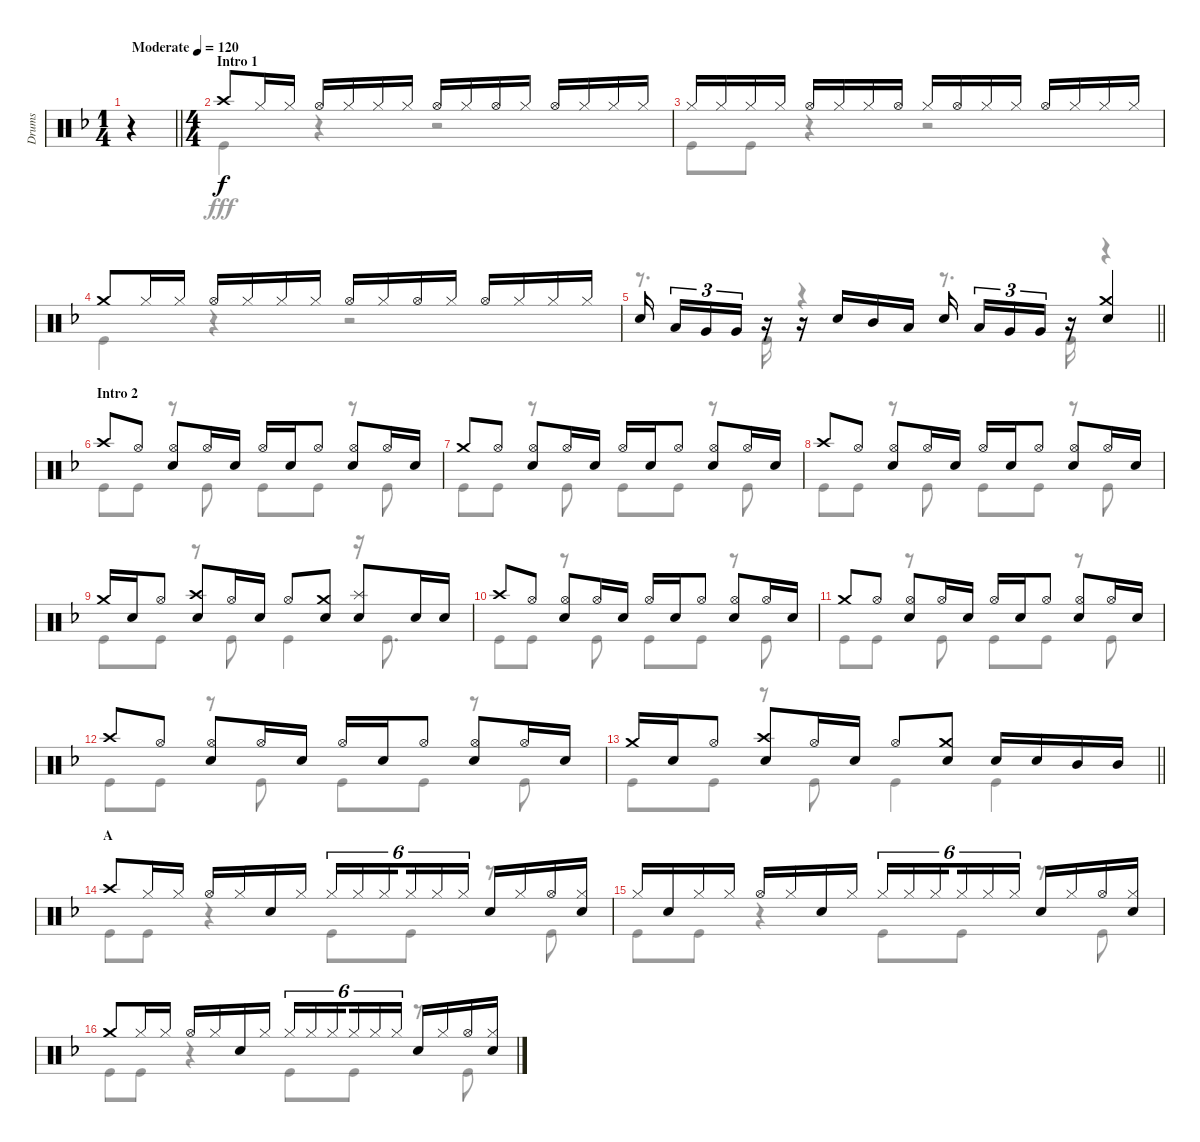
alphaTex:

\track ("Drums" "Drums") {instrument percussion}
\staff {score}
\articulation defaults
\voice
\ts (1 4)
\tempo (120 "Moderate")
\clef neutral
\barLineRight lightlight
\ks f
r.4{dy f} |
\ts (4 4)
\section ("" "Intro 1")
"Crash high (hit)".8 "Hi-Hat (closed)".16 "Hi-Hat (closed)".16 "Hi-Hat (open)".16 "Hi-Hat (closed)".16 "Hi-Hat (closed)".16 "Hi-Hat (closed)".16 "Hi-Hat (open)".16 "Hi-Hat (closed)".16 "Hi-Hat (open)".16 "Hi-Hat (closed)".16 "Hi-Hat (open)".16 "Hi-Hat (closed)".16 "Hi-Hat (closed)".16 "Hi-Hat (closed)".16 |
"Hi-Hat (closed)".16 "Hi-Hat (closed)".16 "Hi-Hat (closed)".16 "Hi-Hat (closed)".16 "Hi-Hat (open)".16 "Hi-Hat (closed)".16 "Hi-Hat (closed)".16 "Hi-Hat (open)".16 "Hi-Hat (closed)".16 "Hi-Hat (open)".16 "Hi-Hat (closed)".16 "Hi-Hat (closed)".16 "Hi-Hat (open)".16 "Hi-Hat (closed)".16 "Hi-Hat (closed)".16 "Hi-Hat (closed)".16 |
"Crash medium (hit)".8 "Hi-Hat (closed)".16 "Hi-Hat (closed)".16 "Hi-Hat (open)".16 "Hi-Hat (closed)".16 "Hi-Hat (closed)".16 "Hi-Hat (closed)".16 "Hi-Hat (open)".16 "Hi-Hat (closed)".16 "Hi-Hat (open)".16 "Hi-Hat (closed)".16 "Hi-Hat (open)".16 "Hi-Hat (closed)".16 "Hi-Hat (closed)".16 "Hi-Hat (closed)".16 |
\barLineRight lightlight "Snare (hit) 2".16{beam splitsecondary} "Low Tom (hit)".16{tu (3 2)} "Very Low Tom (hit)".16{tu (3 2)} "Very Low Tom (hit)".16{tu (3 2)}
r.16 r.16 "Snare (hit) 2".16 "Mid Tom (hit)".16 "Low Tom (hit)".16 "Snare (hit) 2".16{beam splitsecondary} "Low Tom (hit)".16{tu (3 2)} "Very Low Tom (hit)".16{tu (3 2)} "Very Low Tom (hit)".16{tu (3 2)} r.16 ("Crash medium (hit)" "Snare (hit) 2").4 |
\section ("" "Intro 2")
"Crash high (hit)".8 "Hi-Hat (open)".8 ("Hi-Hat (open)" "Snare (hit) 2").8 "Hi-Hat (open)".16 "Snare (hit) 2".16 "Hi-Hat (open)".16 "Snare (hit) 2".16 "Hi-Hat (open)".8 ("Hi-Hat (open)" "Snare (hit) 2").8 "Hi-Hat (open)".16 "Snare (hit) 2".16 |
"Crash medium (hit)".8 "Hi-Hat (open)".8 ("Hi-Hat (open)" "Snare (hit) 2").8 "Hi-Hat (open)".16 "Snare (hit) 2".16 "Hi-Hat (open)".16 "Snare (hit) 2".16 "Hi-Hat (open)".8 ("Hi-Hat (open)" "Snare (hit) 2").8 "Hi-Hat (open)".16 "Snare (hit) 2".16 |
"Crash high (hit)".8 "Hi-Hat (open)".8 ("Hi-Hat (open)" "Snare (hit) 2").8 "Hi-Hat (open)".16 "Snare (hit) 2".16 "Hi-Hat (open)".16 "Snare (hit) 2".16 "Hi-Hat (open)".8 ("Hi-Hat (open)" "Snare (hit) 2").8 "Hi-Hat (open)".16 "Snare (hit) 2".16 |
"Crash medium (hit)".16 "Snare (hit) 2".16 "Hi-Hat (open)".8 ("Crash high (hit)" "Snare (hit) 2").8 "Hi-Hat (open)".16 "Snare (hit) 2".16 "Hi-Hat (open)".8 ("Crash medium (hit)" "Snare (hit) 2").8 ("Splash (hit)" "Snare (hit) 2").8 "Snare (hit) 2".16 "Snare (hit) 2".16 |
"Crash high (hit)".8 "Hi-Hat (open)".8 ("Hi-Hat (open)" "Snare (hit) 2").8 "Hi-Hat (open)".16 "Snare (hit) 2".16 "Hi-Hat (open)".16 "Snare (hit) 2".16 "Hi-Hat (open)".8 ("Hi-Hat (open)" "Snare (hit) 2").8 "Hi-Hat (open)".16 "Snare (hit) 2".16 |
"Crash medium (hit)".8 "Hi-Hat (open)".8 ("Hi-Hat (open)" "Snare (hit) 2").8 "Hi-Hat (open)".16 "Snare (hit) 2".16 "Hi-Hat (open)".16 "Snare (hit) 2".16 "Hi-Hat (open)".8 ("Hi-Hat (open)" "Snare (hit) 2").8 "Hi-Hat (open)".16 "Snare (hit) 2".16 |
"Crash high (hit)".8 "Hi-Hat (open)".8 ("Hi-Hat (open)" "Snare (hit) 2").8 "Hi-Hat (open)".16 "Snare (hit) 2".16 "Hi-Hat (open)".16 "Snare (hit) 2".16 "Hi-Hat (open)".8 ("Hi-Hat (open)" "Snare (hit) 2").8 "Hi-Hat (open)".16 "Snare (hit) 2".16 |
\barLineRight lightlight "Crash medium (hit)".16 "Snare (hit) 2".16 "Hi-Hat (open)".8
("Crash high (hit)" "Snare (hit) 2").8 "Hi-Hat (open)".16 "Snare (hit) 2".16 "Hi-Hat (open)".8 ("Crash medium (hit)" "Snare (hit) 2").8 "Snare (hit) 2".16 "Snare (hit) 2".16 "Mid Tom (hit)".16 "Mid Tom (hit)".16 |
\section ("" "A")
"Crash high (hit)".8 "Hi-Hat (closed)".16 "Hi-Hat (closed)".16 "Hi-Hat (open)".16 "Hi-Hat (closed)".16 "Snare (hit) 2".16 "Hi-Hat (closed)".16 "Hi-Hat (closed)".16{tu (6 4)} "Hi-Hat (closed)".16{tu (6 4)} "Hi-Hat (closed)".16{tu (6 4) beam splitsecondary} "Hi-Hat (closed)".16{tu (6 4)} "Hi-Hat (closed)".16{tu (6 4)} "Hi-Hat (closed)".16{tu (6 4)} "Snare (hit) 2".16 "Hi-Hat (closed)".16 "Hi-Hat (open)".16 ("Hi-Hat (closed)" "Snare (hit) 2").16 |
"Hi-Hat (closed)".16 "Snare (hit) 2".16 "Hi-Hat (closed)".16 "Hi-Hat (closed)".16 "Hi-Hat (open)".16 "Hi-Hat (closed)".16 "Snare (hit) 2".16 "Hi-Hat (closed)".16 "Hi-Hat (closed)".16{tu (6 4)} "Hi-Hat (closed)".16{tu (6 4)} "Hi-Hat (closed)".16{tu (6 4) beam splitsecondary} "Hi-Hat (closed)".16{tu (6 4)} "Hi-Hat (closed)".16{tu (6 4)} "Hi-Hat (closed)".16{tu (6 4)} "Snare (hit) 2".16 "Hi-Hat (closed)".16 "Hi-Hat (open)".16 ("Hi-Hat (closed)" "Snare (hit) 2").16 |
"Crash medium (hit)".8 "Hi-Hat (closed)".16 "Hi-Hat (closed)".16 "Hi-Hat (open)".16 "Hi-Hat (closed)".16 "Snare (hit) 2".16 "Hi-Hat (closed)".16 "Hi-Hat (closed)".16{tu (6 4)} "Hi-Hat (closed)".16{tu (6 4)} "Hi-Hat (closed)".16{tu (6 4) beam splitsecondary} "Hi-Hat (closed)".16{tu (6 4)} "Hi-Hat (closed)".16{tu (6 4)} "Hi-Hat (closed)".16{tu (6 4)} "Snare (hit) 2".16 "Hi-Hat (closed)".16 "Hi-Hat (open)".16 ("Hi-Hat (closed)" "Snare (hit) 2").16
\voice
\clef neutral
\ottava regular
\simile none
\barLineRight lightlight
\ks f
r.4{dy fff} |
"Kick (hit)".4 r.4 r.2 |
"Kick (hit)".8 "Kick (hit)".8 r.4 r.2 |
"Kick (hit)".4 r.4 r.2 |
\barLineRight lightlight
r.8{d} "Kick (hit)".16 r.4 r.8{d} "Kick (hit)".16 r.4 |
"Kick (hit)".8 "Kick (hit)".8 r.8 "Kick (hit)".8 "Kick (hit)".8 "Kick (hit)".8 r.8 "Kick (hit)".8 |
"Kick (hit)".8 "Kick (hit)".8 r.8 "Kick (hit)".8 "Kick (hit)".8 "Kick (hit)".8 r.8 "Kick (hit)".8 |
"Kick (hit)".8 "Kick (hit)".8 r.8 "Kick (hit)".8 "Kick (hit)".8 "Kick (hit)".8 r.8 "Kick (hit)".8 |
"Kick (hit)".8 "Kick (hit)".8 r.8 "Kick (hit)".8 "Kick (hit)".4 r.16 "Kick (hit)".8{d} |
"Kick (hit)".8 "Kick (hit)".8 r.8 "Kick (hit)".8 "Kick (hit)".8 "Kick (hit)".8 r.8 "Kick (hit)".8 |
"Kick (hit)".8 "Kick (hit)".8 r.8 "Kick (hit)".8 "Kick (hit)".8 "Kick (hit)".8 r.8 "Kick (hit)".8 |
"Kick (hit)".8 "Kick (hit)".8 r.8 "Kick (hit)".8 "Kick (hit)".8 "Kick (hit)".8 r.8 "Kick (hit)".8 |
\barLineRight lightlight "Kick (hit)".8 "Kick (hit)".8
r.8 "Kick (hit)".8 "Kick (hit)".4 "Kick (hit)".4 |
"Kick (hit)".8 "Kick (hit)".8 r.4 "Kick (hit)".8 "Kick (hit)".8 r.8 "Kick (hit)".8 |
"Kick (hit)".8 "Kick (hit)".8 r.4 "Kick (hit)".8 "Kick (hit)".8 r.8 "Kick (hit)".8 |
"Kick (hit)".8 "Kick (hit)".8 r.4 "Kick (hit)".8 "Kick (hit)".8 r.8 "Kick (hit)".8
